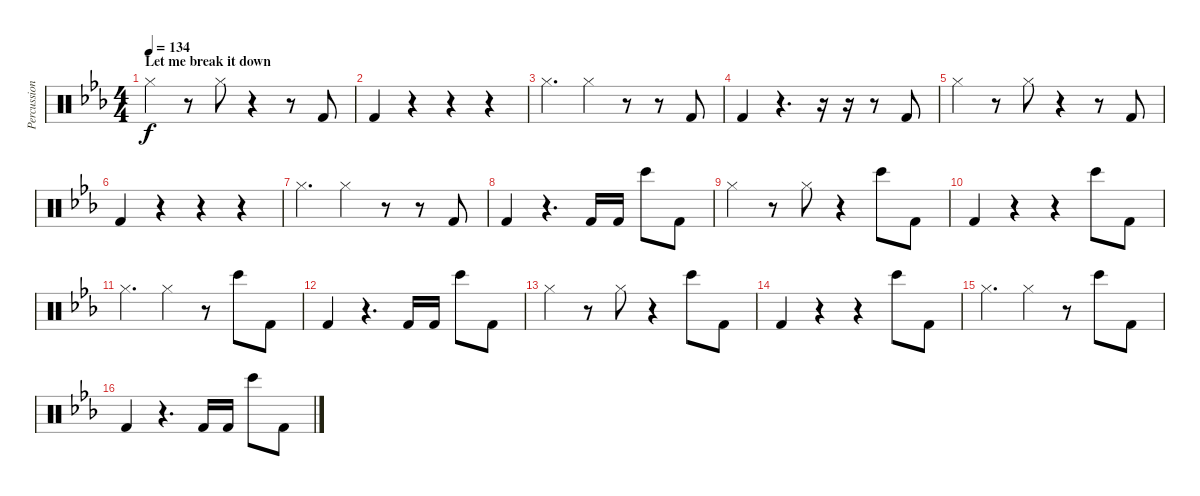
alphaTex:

\track ("Percussion" "Percussion") {instrument percussion}
\staff {score}
\articulation defaults
\ts (4 4)
\section ("" "Let me break it down")
\tempo 134
\clef neutral
\ks eb "Hi-Hat (closed)".4{dy f}
r.8 "Hi-Hat (closed)".8 r.4 r.8 "Kick (hit) 2".8 |
"Kick (hit) 2".4 r.4 r.4 r.4 |
"Hi-Hat (closed)".4{d} "Hi-Hat (closed)".4 r.8 r.8 "Kick (hit) 2".8 |
"Kick (hit) 2".4 r.4{d} r.16 r.16 r.8 "Kick (hit) 2".8 |
"Hi-Hat (closed)".4 r.8 "Hi-Hat (closed)".8 r.4 r.8 "Kick (hit) 2".8 |
"Kick (hit) 2".4 r.4 r.4 r.4 |
"Hi-Hat (closed)".4{d} "Hi-Hat (closed)".4 r.8 r.8 "Kick (hit) 2".8 |
"Kick (hit) 2".4 r.4{d} "Kick (hit) 2".16 "Kick (hit) 2".16 "Bongo High (hit)".8 "Kick (hit) 2".8 |
"Hi-Hat (closed)".4 r.8 "Hi-Hat (closed)".8 r.4 "Bongo High (hit)".8 "Kick (hit) 2".8 |
"Kick (hit) 2".4 r.4 r.4 "Bongo High (hit)".8 "Kick (hit) 2".8 |
"Hi-Hat (closed)".4{d} "Hi-Hat (closed)".4 r.8 "Bongo High (hit)".8 "Kick (hit) 2".8 |
"Kick (hit) 2".4 r.4{d} "Kick (hit) 2".16 "Kick (hit) 2".16 "Bongo High (hit)".8 "Kick (hit) 2".8 |
"Hi-Hat (closed)".4 r.8 "Hi-Hat (closed)".8 r.4 "Bongo High (hit)".8 "Kick (hit) 2".8 |
"Kick (hit) 2".4 r.4 r.4 "Bongo High (hit)".8 "Kick (hit) 2".8 |
"Hi-Hat (closed)".4{d} "Hi-Hat (closed)".4 r.8 "Bongo High (hit)".8 "Kick (hit) 2".8 |
"Kick (hit) 2".4 r.4{d} "Kick (hit) 2".16 "Kick (hit) 2".16 "Bongo High (hit)".8 "Kick (hit) 2".8
